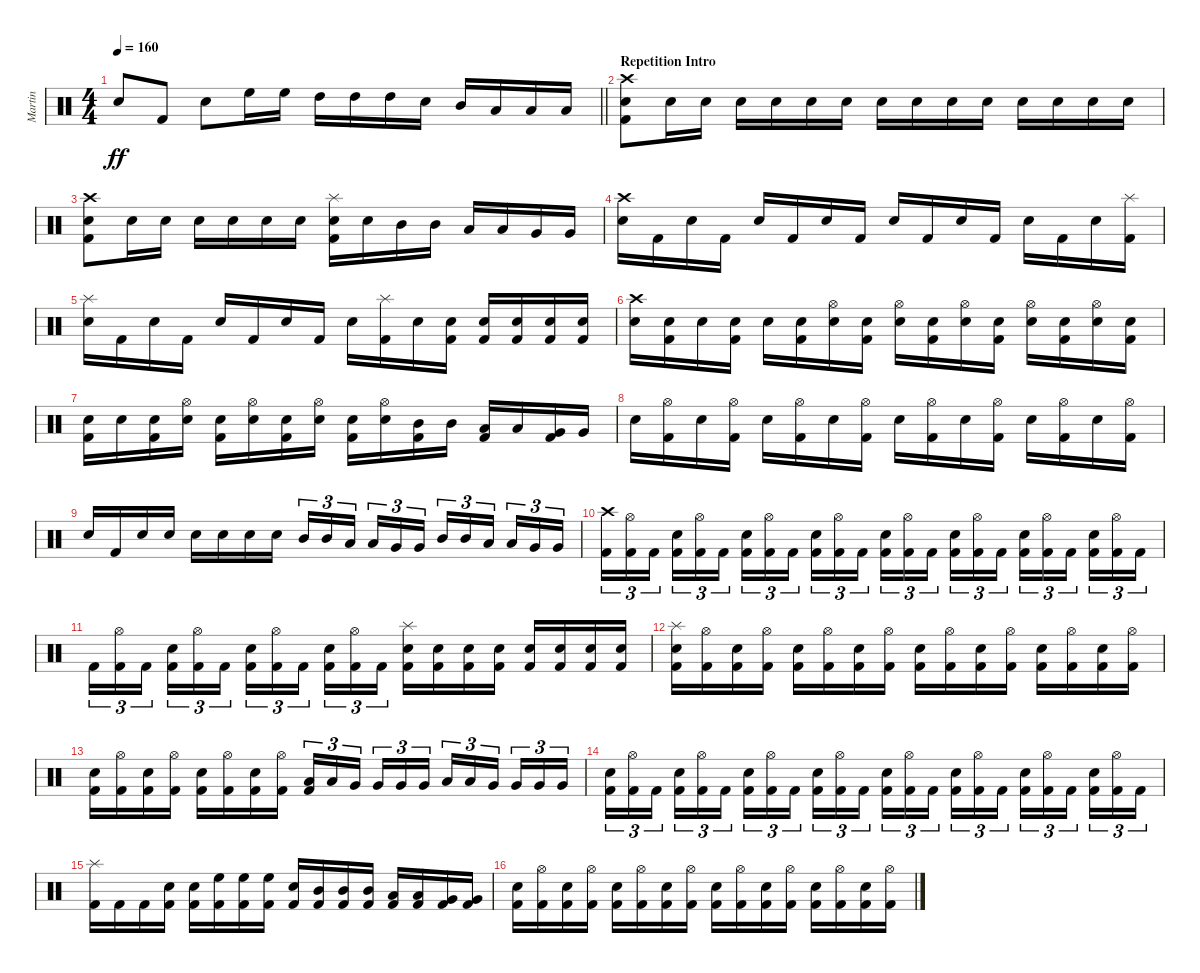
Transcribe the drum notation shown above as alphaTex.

\track ("Martin" "Martin") {instrument percussion}
\staff {score}
\articulation defaults
\ts (4 4)
\tempo 160
\clef neutral
\barLineRight lightlight
\ks c "Electric Snare (hit)".8{dy ff} "Kick (hit) 2".8 "Electric Snare (hit)".8 "High Floor Tom (hit)".16 "High Floor Tom (hit)".16 "High Tom (hit)".16 "High Tom (hit)".16 "High Tom (hit)".16 "Electric Snare (hit)".16 "Mid Tom (hit)".16 "Low Tom (hit)".16 "Low Tom (hit)".16 "Low Tom (hit)".16
|
\section ("" "Repetition Intro")
("Crash high (hit)" "Electric Snare (hit)" "Kick (hit) 2").8 "Electric Snare (hit)".16 "Electric Snare (hit)".16 "Electric Snare (hit)".16 "Electric Snare (hit)".16 "Electric Snare (hit)".16 "Electric Snare (hit)".16 "Electric Snare (hit)".16 "Electric Snare (hit)".16 "Electric Snare (hit)".16 "Electric Snare (hit)".16 "Electric Snare (hit)".16 "Electric Snare (hit)".16 "Electric Snare (hit)".16 "Electric Snare (hit)".16 |
("Crash high (hit)" "Electric Snare (hit)" "Kick (hit) 2").8 "Electric Snare (hit)".16 "Electric Snare (hit)".16 "Electric Snare (hit)".16 "Electric Snare (hit)".16 "Electric Snare (hit)".16 "Electric Snare (hit)".16 ("Splash (hit)" "Electric Snare (hit)" "Kick (hit) 2").16 "Electric Snare (hit)".16 "Mid Tom (hit)".16 "Mid Tom (hit)".16 "Low Tom (hit)".16 "Low Tom (hit)".16 "Very Low Tom (hit)".16 "Very Low Tom (hit)".16 |
("Crash high (hit)" "Electric Snare (hit)").16 "Kick (hit) 2".16 "Electric Snare (hit)".16 "Kick (hit) 2".16 "Electric Snare (hit)".16 "Kick (hit) 2".16 "Electric Snare (hit)".16 "Kick (hit) 2".16 "Electric Snare (hit)".16 "Kick (hit) 2".16 "Electric Snare (hit)".16 "Kick (hit) 2".16 "Electric Snare (hit)".16 "Kick (hit) 2".16 "Electric Snare (hit)".16 ("Splash (hit)" "Kick (hit) 2").16 |
("Splash (hit)" "Electric Snare (hit)").16 "Kick (hit) 2".16 "Electric Snare (hit)".16 "Kick (hit) 2".16 "Electric Snare (hit)".16 "Kick (hit) 2".16 "Electric Snare (hit)".16 "Kick (hit) 2".16 "Electric Snare (hit)".16 ("Splash (hit)" "Kick (hit) 2").16 "Electric Snare (hit)".16 ("Electric Snare (hit)" "Kick (hit) 2").16 ("Electric Snare (hit)" "Kick (hit) 2").16 ("Electric Snare (hit)" "Kick (hit) 2").16 ("Electric Snare (hit)" "Kick (hit) 2").16 ("Electric Snare (hit)" "Kick (hit) 2").16 |
("Crash high (hit)" "Electric Snare (hit)").16 ("Electric Snare (hit)" "Kick (hit) 2").16 "Electric Snare (hit)".16 ("Electric Snare (hit)" "Kick (hit) 2").16 "Electric Snare (hit)".16 ("Electric Snare (hit)" "Kick (hit) 2").16 ("Hi-Hat (open)" "Electric Snare (hit)").16 ("Electric Snare (hit)" "Kick (hit) 2").16 ("Hi-Hat (open)" "Electric Snare (hit)").16 ("Electric Snare (hit)" "Kick (hit) 2").16 ("Hi-Hat (open)" "Electric Snare (hit)").16 ("Electric Snare (hit)" "Kick (hit) 2").16 ("Hi-Hat (open)" "Electric Snare (hit)").16 ("Electric Snare (hit)" "Kick (hit) 2").16 ("Hi-Hat (open)" "Electric Snare (hit)").16 ("Electric Snare (hit)" "Kick (hit) 2").16 |
("Electric Snare (hit)" "Kick (hit) 2").16 "Electric Snare (hit)".16 ("Electric Snare (hit)" "Kick (hit) 2").16 ("Hi-Hat (open)" "Electric Snare (hit)").16 ("Electric Snare (hit)" "Kick (hit) 2").16 ("Hi-Hat (open)" "Electric Snare (hit)").16 ("Electric Snare (hit)" "Kick (hit) 2").16 ("Hi-Hat (open)" "Electric Snare (hit)").16 ("Electric Snare (hit)" "Kick (hit) 2").16 ("Hi-Hat (open)" "Electric Snare (hit)").16 ("Mid Tom (hit)" "Kick (hit) 2").16 "Mid Tom (hit)".16 ("Low Tom (hit)" "Kick (hit) 2").16 "Low Tom (hit)".16 ("Very Low Tom (hit)" "Kick (hit) 2").16 "Very Low Tom (hit)".16 |
"Electric Snare (hit)".16 ("Hi-Hat (open)" "Kick (hit) 2").16 "Electric Snare (hit)".16 ("Hi-Hat (open)" "Kick (hit) 2").16 "Electric Snare (hit)".16 ("Hi-Hat (open)" "Kick (hit) 2").16 "Electric Snare (hit)".16 ("Hi-Hat (open)" "Kick (hit) 2").16 "Electric Snare (hit)".16 ("Hi-Hat (open)" "Kick (hit) 2").16 "Electric Snare (hit)".16 ("Hi-Hat (open)" "Kick (hit) 2").16 "Electric Snare (hit)".16 ("Hi-Hat (open)" "Kick (hit) 2").16 "Electric Snare (hit)".16 ("Hi-Hat (open)" "Kick (hit) 2").16 |
"Electric Snare (hit)".16 "Kick (hit) 2".16 "Electric Snare (hit)".16 "Electric Snare (hit)".16 "Electric Snare (hit)".16 "Electric Snare (hit)".16 "Electric Snare (hit)".16 "Electric Snare (hit)".16 "Mid Tom (hit)".16{tu (3 2)} "Mid Tom (hit)".16{tu (3 2)} "Low Tom (hit)".16{tu (3 2) beam splitsecondary} "Low Tom (hit)".16{tu (3 2)} "Very Low Tom (hit)".16{tu (3 2)} "Very Low Tom (hit)".16{tu (3 2)} "Mid Tom (hit)".16{tu (3 2)} "Mid Tom (hit)".16{tu (3 2)} "Low Tom (hit)".16{tu (3 2) beam splitsecondary} "Low Tom (hit)".16{tu (3 2)} "Very Low Tom (hit)".16{tu (3 2)} "Very Low Tom (hit)".16{tu (3 2)} |
("Crash high (hit)" "Kick (hit) 2").16{tu (3 2)} ("Hi-Hat (open)" "Kick (hit) 2").16{tu (3 2)} "Kick (hit) 2".16{tu (3 2) beam splitsecondary} ("Electric Snare (hit)" "Kick (hit) 2").16{tu (3 2)} ("Hi-Hat (open)" "Kick (hit) 2").16{tu (3 2)} "Kick (hit) 2".16{tu (3 2)} ("Electric Snare (hit)" "Kick (hit) 2").16{tu (3 2)} ("Hi-Hat (open)" "Kick (hit) 2").16{tu (3 2)} "Kick (hit) 2".16{tu (3 2) beam splitsecondary} ("Electric Snare (hit)" "Kick (hit) 2").16{tu (3 2)} ("Hi-Hat (open)" "Kick (hit) 2").16{tu (3 2)} "Kick (hit) 2".16{tu (3 2)} ("Electric Snare (hit)" "Kick (hit) 2").16{tu (3 2)} ("Hi-Hat (open)" "Kick (hit) 2").16{tu (3 2)} "Kick (hit) 2".16{tu (3 2) beam splitsecondary} ("Electric Snare (hit)" "Kick (hit) 2").16{tu (3 2)} ("Hi-Hat (open)" "Kick (hit) 2").16{tu (3 2)} "Kick (hit) 2".16{tu (3 2)} ("Electric Snare (hit)" "Kick (hit) 2").16{tu (3 2)} ("Hi-Hat (open)" "Kick (hit) 2").16{tu (3 2)} "Kick (hit) 2".16{tu (3 2) beam splitsecondary} ("Electric Snare (hit)" "Kick (hit) 2").16{tu (3 2)} ("Hi-Hat (open)" "Kick (hit) 2").16{tu (3 2)} "Kick (hit) 2".16{tu (3 2)} |
"Kick (hit) 2".16{tu (3 2)} ("Hi-Hat (open)" "Kick (hit) 2").16{tu (3 2)} "Kick (hit) 2".16{tu (3 2) beam splitsecondary} ("Electric Snare (hit)" "Kick (hit) 2").16{tu (3 2)} ("Hi-Hat (open)" "Kick (hit) 2").16{tu (3 2)} "Kick (hit) 2".16{tu (3 2)} ("Electric Snare (hit)" "Kick (hit) 2").16{tu (3 2)} ("Hi-Hat (open)" "Kick (hit) 2").16{tu (3 2)} "Kick (hit) 2".16{tu (3 2) beam splitsecondary} ("Electric Snare (hit)" "Kick (hit) 2").16{tu (3 2)} ("Hi-Hat (open)" "Kick (hit) 2").16{tu (3 2)} "Kick (hit) 2".16{tu (3 2)} ("Splash (hit)" "Electric Snare (hit)" "Kick (hit) 2").16 ("Electric Snare (hit)" "Kick (hit) 2").16 ("Electric Snare (hit)" "Kick (hit) 2").16 ("Electric Snare (hit)" "Kick (hit) 2").16 ("Electric Snare (hit)" "Kick (hit) 2").16 ("Electric Snare (hit)" "Kick (hit) 2").16 ("Electric Snare (hit)" "Kick (hit) 2").16 ("Electric Snare (hit)" "Kick (hit) 2").16 |
("Splash (hit)" "Electric Snare (hit)" "Kick (hit) 2").16 ("Hi-Hat (open)" "Kick (hit) 2").16 ("Electric Snare (hit)" "Kick (hit) 2").16 ("Hi-Hat (open)" "Kick (hit) 2").16 ("Electric Snare (hit)" "Kick (hit) 2").16 ("Hi-Hat (open)" "Kick (hit) 2").16 ("Electric Snare (hit)" "Kick (hit) 2").16 ("Hi-Hat (open)" "Kick (hit) 2").16 ("Electric Snare (hit)" "Kick (hit) 2").16 ("Hi-Hat (open)" "Kick (hit) 2").16 ("Electric Snare (hit)" "Kick (hit) 2").16 ("Hi-Hat (open)" "Kick (hit) 2").16 ("Electric Snare (hit)" "Kick (hit) 2").16 ("Hi-Hat (open)" "Kick (hit) 2").16 ("Electric Snare (hit)" "Kick (hit) 2").16 ("Hi-Hat (open)" "Kick (hit) 2").16 |
("Electric Snare (hit)" "Kick (hit) 2").16 ("Hi-Hat (open)" "Kick (hit) 2").16 ("Electric Snare (hit)" "Kick (hit) 2").16 ("Hi-Hat (open)" "Kick (hit) 2").16 ("Electric Snare (hit)" "Kick (hit) 2").16 ("Hi-Hat (open)" "Kick (hit) 2").16 ("Electric Snare (hit)" "Kick (hit) 2").16 ("Hi-Hat (open)" "Kick (hit) 2").16 ("Low Tom (hit)" "Kick (hit) 2").16{tu (3 2)} "Low Tom (hit)".16{tu (3 2)} "Very Low Tom (hit)".16{tu (3 2) beam splitsecondary} "Very Low Tom (hit)".16{tu (3 2)} "Very Low Tom (hit)".16{tu (3 2)} "Very Low Tom (hit)".16{tu (3 2)} "Low Tom (hit)".16{tu (3 2)} "Low Tom (hit)".16{tu (3 2)} "Very Low Tom (hit)".16{tu (3 2) beam splitsecondary} "Very Low Tom (hit)".16{tu (3 2)} "Very Low Tom (hit)".16{tu (3 2)} "Very Low Tom (hit)".16{tu (3 2)} |
("Electric Snare (hit)" "Kick (hit) 2").16{tu (3 2)} ("Hi-Hat (open)" "Kick (hit) 2").16{tu (3 2)} "Kick (hit) 2".16{tu (3 2) beam splitsecondary} ("Electric Snare (hit)" "Kick (hit) 2").16{tu (3 2)} ("Hi-Hat (open)" "Kick (hit) 2").16{tu (3 2)} "Kick (hit) 2".16{tu (3 2)} ("Electric Snare (hit)" "Kick (hit) 2").16{tu (3 2)} ("Hi-Hat (open)" "Kick (hit) 2").16{tu (3 2)} "Kick (hit) 2".16{tu (3 2) beam splitsecondary} ("Electric Snare (hit)" "Kick (hit) 2").16{tu (3 2)} ("Hi-Hat (open)" "Kick (hit) 2").16{tu (3 2)} "Kick (hit) 2".16{tu (3 2)} ("Electric Snare (hit)" "Kick (hit) 2").16{tu (3 2)} ("Hi-Hat (open)" "Kick (hit) 2").16{tu (3 2)} "Kick (hit) 2".16{tu (3 2) beam splitsecondary} ("Electric Snare (hit)" "Kick (hit) 2").16{tu (3 2)} ("Hi-Hat (open)" "Kick (hit) 2").16{tu (3 2)} "Kick (hit) 2".16{tu (3 2)} ("Electric Snare (hit)" "Kick (hit) 2").16{tu (3 2)} ("Hi-Hat (open)" "Kick (hit) 2").16{tu (3 2)} "Kick (hit) 2".16{tu (3 2) beam splitsecondary} ("Electric Snare (hit)" "Kick (hit) 2").16{tu (3 2)} ("Hi-Hat (open)" "Kick (hit) 2").16{tu (3 2)} "Kick (hit) 2".16{tu (3 2)} |
("Splash (hit)" "Kick (hit) 2").16 "Kick (hit) 2".16 "Kick (hit) 2".16 ("Electric Snare (hit)" "Kick (hit) 2").16 ("Electric Snare (hit)" "Kick (hit) 2").16 ("High Floor Tom (hit)" "Kick (hit) 2").16 ("High Floor Tom (hit)" "Kick (hit) 2").16 ("High Floor Tom (hit)" "Kick (hit) 2").16 ("Electric Snare (hit)" "Kick (hit) 2").16 ("Mid Tom (hit)" "Kick (hit) 2").16 ("Mid Tom (hit)" "Kick (hit) 2").16 ("Mid Tom (hit)" "Kick (hit) 2").16 ("Low Tom (hit)" "Kick (hit) 2").16 ("Low Tom (hit)" "Kick (hit) 2").16 ("Very Low Tom (hit)" "Kick (hit) 2").16 ("Very Low Tom (hit)" "Kick (hit) 2").16 |
("Electric Snare (hit)" "Kick (hit) 2").16 ("Hi-Hat (open)" "Kick (hit) 2").16 ("Electric Snare (hit)" "Kick (hit) 2").16 ("Hi-Hat (open)" "Kick (hit) 2").16 ("Electric Snare (hit)" "Kick (hit) 2").16 ("Hi-Hat (open)" "Kick (hit) 2").16 ("Electric Snare (hit)" "Kick (hit) 2").16 ("Hi-Hat (open)" "Kick (hit) 2").16 ("Electric Snare (hit)" "Kick (hit) 2").16 ("Hi-Hat (open)" "Kick (hit) 2").16 ("Electric Snare (hit)" "Kick (hit) 2").16 ("Hi-Hat (open)" "Kick (hit) 2").16 ("Electric Snare (hit)" "Kick (hit) 2").16 ("Hi-Hat (open)" "Kick (hit) 2").16 ("Electric Snare (hit)" "Kick (hit) 2").16 ("Hi-Hat (open)" "Kick (hit) 2").16
